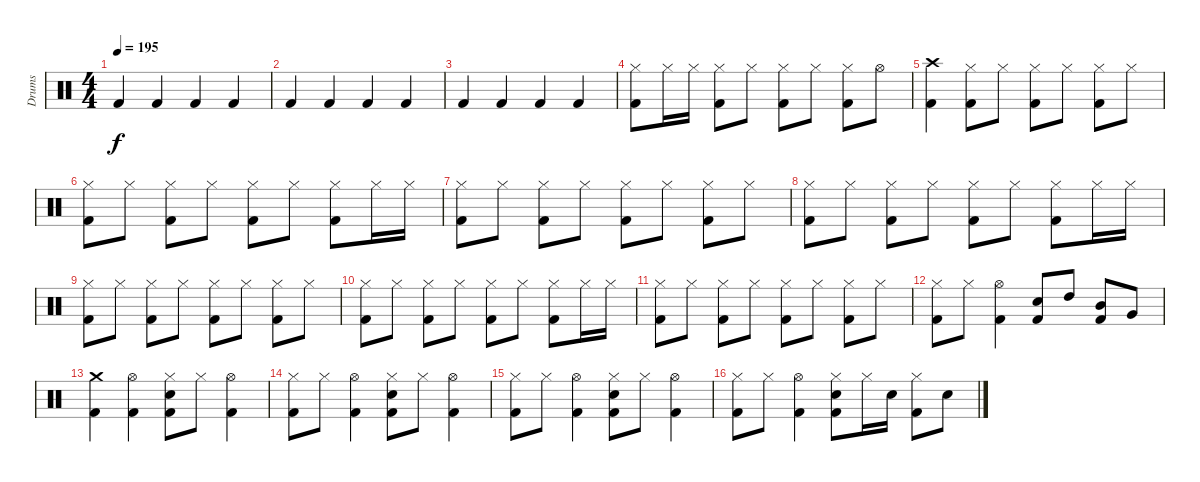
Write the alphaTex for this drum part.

\track ("Drums" "Drums") {instrument percussion}
\staff {score}
\articulation defaults
\ts (4 4)
\tempo 195
\clef neutral
\ks c "Kick (hit) 2".4{dy f} "Kick (hit) 2".4 "Kick (hit) 2".4 "Kick (hit) 2".4
|
"Kick (hit) 2".4 "Kick (hit) 2".4 "Kick (hit) 2".4 "Kick (hit) 2".4 |
"Kick (hit) 2".4 "Kick (hit) 2".4 "Kick (hit) 2".4 "Kick (hit) 2".4 |
("Hi-Hat (closed)" "Kick (hit) 2").8 "Hi-Hat (closed)".16 "Hi-Hat (closed)".16 ("Hi-Hat (closed)" "Kick (hit) 2").8 "Hi-Hat (closed)".8 ("Hi-Hat (closed)" "Kick (hit) 2").8 "Hi-Hat (closed)".8 ("Hi-Hat (closed)" "Kick (hit) 2").8 "Hi-Hat (open)".8 |
("Crash high (hit)" "Kick (hit) 2").4 ("Hi-Hat (closed)" "Kick (hit) 2").8 "Hi-Hat (closed)".8 ("Hi-Hat (closed)" "Kick (hit) 2").8 "Hi-Hat (closed)".8 ("Hi-Hat (closed)" "Kick (hit) 2").8 "Hi-Hat (closed)".8 |
("Hi-Hat (closed)" "Kick (hit) 2").8 "Hi-Hat (closed)".8 ("Hi-Hat (closed)" "Kick (hit) 2").8 "Hi-Hat (closed)".8 ("Hi-Hat (closed)" "Kick (hit) 2").8 "Hi-Hat (closed)".8 ("Hi-Hat (closed)" "Kick (hit) 2").8 "Hi-Hat (closed)".16 "Hi-Hat (closed)".16 |
("Hi-Hat (closed)" "Kick (hit) 2").8 "Hi-Hat (closed)".8 ("Hi-Hat (closed)" "Kick (hit) 2").8 "Hi-Hat (closed)".8 ("Hi-Hat (closed)" "Kick (hit) 2").8 "Hi-Hat (closed)".8 ("Hi-Hat (closed)" "Kick (hit) 2").8 "Hi-Hat (closed)".8 |
("Hi-Hat (closed)" "Kick (hit) 2").8 "Hi-Hat (closed)".8 ("Hi-Hat (closed)" "Kick (hit) 2").8 "Hi-Hat (closed)".8 ("Hi-Hat (closed)" "Kick (hit) 2").8 "Hi-Hat (closed)".8 ("Hi-Hat (closed)" "Kick (hit) 2").8 "Hi-Hat (closed)".16 "Hi-Hat (closed)".16 |
("Hi-Hat (closed)" "Kick (hit) 2").8 "Hi-Hat (closed)".8 ("Hi-Hat (closed)" "Kick (hit) 2").8 "Hi-Hat (closed)".8 ("Hi-Hat (closed)" "Kick (hit) 2").8 "Hi-Hat (closed)".8 ("Hi-Hat (closed)" "Kick (hit) 2").8 "Hi-Hat (closed)".8 |
("Hi-Hat (closed)" "Kick (hit) 2").8 "Hi-Hat (closed)".8 ("Hi-Hat (closed)" "Kick (hit) 2").8 "Hi-Hat (closed)".8 ("Hi-Hat (closed)" "Kick (hit) 2").8 "Hi-Hat (closed)".8 ("Hi-Hat (closed)" "Kick (hit) 2").8 "Hi-Hat (closed)".16 "Hi-Hat (closed)".16 |
("Hi-Hat (closed)" "Kick (hit) 2").8 "Hi-Hat (closed)".8 ("Hi-Hat (closed)" "Kick (hit) 2").8 "Hi-Hat (closed)".8 ("Hi-Hat (closed)" "Kick (hit) 2").8 "Hi-Hat (closed)".8 ("Hi-Hat (closed)" "Kick (hit) 2").8 "Hi-Hat (closed)".8 |
("Hi-Hat (closed)" "Kick (hit) 2").8 "Hi-Hat (closed)".8 ("Hi-Hat (open)" "Kick (hit) 2").4 ("Snare (hit) 2" "Kick (hit) 2").8 "High Tom (hit)".8 ("Mid Tom (hit)" "Kick (hit) 2").8 "Very Low Tom (hit)".8 |
("Crash medium (hit)" "Kick (hit) 2").4 ("Hi-Hat (open)" "Kick (hit) 2").4 ("Hi-Hat (closed)" "Snare (hit) 2" "Kick (hit) 2").8 "Hi-Hat (closed)".8 ("Hi-Hat (open)" "Kick (hit) 2").4 |
("Hi-Hat (closed)" "Kick (hit) 2").8 "Hi-Hat (closed)".8 ("Hi-Hat (open)" "Kick (hit) 2").4 ("Hi-Hat (closed)" "Snare (hit) 2" "Kick (hit) 2").8 "Hi-Hat (closed)".8 ("Hi-Hat (open)" "Kick (hit) 2").4 |
("Hi-Hat (closed)" "Kick (hit) 2").8 "Hi-Hat (closed)".8 ("Hi-Hat (open)" "Kick (hit) 2").4 ("Hi-Hat (closed)" "Snare (hit) 2" "Kick (hit) 2").8 "Hi-Hat (closed)".8 ("Hi-Hat (open)" "Kick (hit) 2").4 |
("Hi-Hat (closed)" "Kick (hit) 2").8 "Hi-Hat (closed)".8 ("Hi-Hat (open)" "Kick (hit) 2").4 ("Hi-Hat (closed)" "Snare (hit) 2" "Kick (hit) 2").8 "Hi-Hat (closed)".16 "Snare (hit) 2".16 ("Hi-Hat (closed)" "Kick (hit) 2").8 "Snare (hit) 2".8
